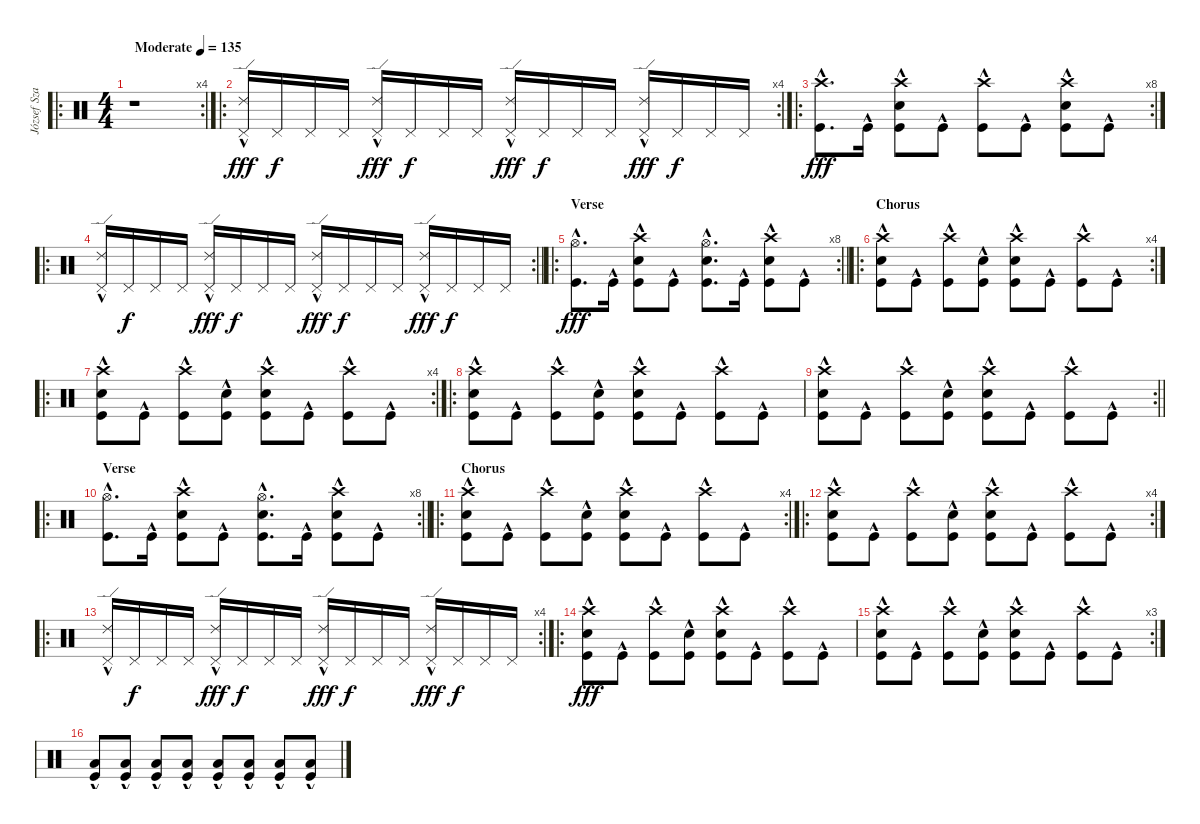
\track ("József Szakács" "József Sza") {instrument percussion}
\staff {score}
\articulation defaults
\ro
\rc 4
\ts (4 4)
\tempo (135 "Moderate")
\clef neutral
\ks c
r.1{dy fff} |
\ro
\rc 4
("Ride (edge) 2"{hac} "Pedal Hi-Hat (hit)").16 "Pedal Hi-Hat (hit)".16{dy f} "Pedal Hi-Hat (hit)".16 "Pedal Hi-Hat (hit)".16 ("Ride (edge) 2"{hac} "Pedal Hi-Hat (hit)").16{dy fff} "Pedal Hi-Hat (hit)".16{dy f} "Pedal Hi-Hat (hit)".16 "Pedal Hi-Hat (hit)".16 ("Ride (edge) 2"{hac} "Pedal Hi-Hat (hit)").16{dy fff} "Pedal Hi-Hat (hit)".16{dy f} "Pedal Hi-Hat (hit)".16 "Pedal Hi-Hat (hit)".16 ("Ride (edge) 2"{hac} "Pedal Hi-Hat (hit)").16{dy fff} "Pedal Hi-Hat (hit)".16{dy f} "Pedal Hi-Hat (hit)".16 "Pedal Hi-Hat (hit)".16 |
\ro
\rc 8
("Crash high (hit)" "Kick (hit)"{hac}).8{d dy fff} "Kick (hit)"{hac}.16 ("Crash high (hit)" "Electric Snare (hit)" "Kick (hit)"{hac}).8 "Kick (hit)"{hac}.8 ("Crash high (hit)" "Kick (hit)"{hac}).8 "Kick (hit)"{hac}.8 ("Crash high (hit)" "Electric Snare (hit)" "Kick (hit)"{hac}).8 "Kick (hit)"{hac}.8 |
\ro
\rc 2
\barLineRight lightlight
("Ride (edge) 2"{hac} "Pedal Hi-Hat (hit)").16 "Pedal Hi-Hat (hit)".16{dy f} "Pedal Hi-Hat (hit)".16 "Pedal Hi-Hat (hit)".16 ("Ride (edge) 2"{hac} "Pedal Hi-Hat (hit)").16{dy fff} "Pedal Hi-Hat (hit)".16{dy f} "Pedal Hi-Hat (hit)".16 "Pedal Hi-Hat (hit)".16 ("Ride (edge) 2"{hac} "Pedal Hi-Hat (hit)").16{dy fff} "Pedal Hi-Hat (hit)".16{dy f} "Pedal Hi-Hat (hit)".16 "Pedal Hi-Hat (hit)".16 ("Ride (edge) 2"{hac} "Pedal Hi-Hat (hit)").16{dy fff} "Pedal Hi-Hat (hit)".16{dy f} "Pedal Hi-Hat (hit)".16 "Pedal Hi-Hat (hit)".16 |
\ro
\rc 8
\section ("" "Verse")
\barLineRight lightlight
("Hi-Hat (open)" "Kick (hit)"{hac}).8{d dy fff} "Kick (hit)"{hac}.16 ("Crash high (hit)" "Electric Snare (hit)" "Kick (hit)"{hac}).8 "Kick (hit)"{hac}.8 ("Hi-Hat (open)" "Electric Snare (hit)" "Kick (hit)"{hac}).8{d} "Kick (hit)"{hac}.16 ("Crash high (hit)" "Electric Snare (hit)" "Kick (hit)"{hac}).8 "Kick (hit)"{hac}.8 |
\ro
\rc 4
\section ("" "Chorus")
("Crash high (hit)" "Electric Snare (hit)" "Kick (hit)"{hac}).8 "Kick (hit)"{hac}.8 ("Crash high (hit)" "Kick (hit)"{hac}).8 ("Electric Snare (hit)" "Kick (hit)"{hac}).8 ("Crash high (hit)" "Electric Snare (hit)" "Kick (hit)"{hac}).8 "Kick (hit)"{hac}.8 ("Crash high (hit)" "Kick (hit)"{hac}).8 "Kick (hit)"{hac}.8 |
\ro
\rc 4
("Crash high (hit)" "Electric Snare (hit)" "Kick (hit)"{hac}).8 "Kick (hit)"{hac}.8 ("Crash high (hit)" "Kick (hit)"{hac}).8 ("Electric Snare (hit)" "Kick (hit)"{hac}).8 ("Crash high (hit)" "Electric Snare (hit)" "Kick (hit)"{hac}).8 "Kick (hit)"{hac}.8 ("Crash high (hit)" "Kick (hit)"{hac}).8 "Kick (hit)"{hac}.8 |
\ro
("Crash high (hit)" "Electric Snare (hit)" "Kick (hit)"{hac}).8 "Kick (hit)"{hac}.8 ("Crash high (hit)" "Kick (hit)"{hac}).8 ("Electric Snare (hit)" "Kick (hit)"{hac}).8 ("Crash high (hit)" "Electric Snare (hit)" "Kick (hit)"{hac}).8 "Kick (hit)"{hac}.8 ("Crash high (hit)" "Kick (hit)"{hac}).8 "Kick (hit)"{hac}.8 |
\rc 2
\barLineRight lightlight
("Crash high (hit)" "Electric Snare (hit)" "Kick (hit)"{hac}).8 "Kick (hit)"{hac}.8 ("Crash high (hit)" "Kick (hit)"{hac}).8 ("Electric Snare (hit)" "Kick (hit)"{hac}).8 ("Crash high (hit)" "Electric Snare (hit)" "Kick (hit)"{hac}).8 "Kick (hit)"{hac}.8 ("Crash high (hit)" "Kick (hit)"{hac}).8 "Kick (hit)"{hac}.8 |
\ro
\rc 8
\section ("" "Verse")
\barLineRight lightlight
("Hi-Hat (open)" "Kick (hit)"{hac}).8{d} "Kick (hit)"{hac}.16 ("Crash high (hit)" "Electric Snare (hit)" "Kick (hit)"{hac}).8 "Kick (hit)"{hac}.8 ("Hi-Hat (open)" "Electric Snare (hit)" "Kick (hit)"{hac}).8{d} "Kick (hit)"{hac}.16 ("Crash high (hit)" "Electric Snare (hit)" "Kick (hit)"{hac}).8 "Kick (hit)"{hac}.8 |
\ro
\rc 4
\section ("" "Chorus")
("Crash high (hit)" "Electric Snare (hit)" "Kick (hit)"{hac}).8 "Kick (hit)"{hac}.8 ("Crash high (hit)" "Kick (hit)"{hac}).8 ("Electric Snare (hit)" "Kick (hit)"{hac}).8 ("Crash high (hit)" "Electric Snare (hit)" "Kick (hit)"{hac}).8 "Kick (hit)"{hac}.8 ("Crash high (hit)" "Kick (hit)"{hac}).8 "Kick (hit)"{hac}.8 |
\ro
\rc 4
("Crash high (hit)" "Electric Snare (hit)" "Kick (hit)"{hac}).8 "Kick (hit)"{hac}.8 ("Crash high (hit)" "Kick (hit)"{hac}).8 ("Electric Snare (hit)" "Kick (hit)"{hac}).8 ("Crash high (hit)" "Electric Snare (hit)" "Kick (hit)"{hac}).8 "Kick (hit)"{hac}.8 ("Crash high (hit)" "Kick (hit)"{hac}).8 "Kick (hit)"{hac}.8 |
\ro
\rc 4
("Ride (edge) 2"{hac} "Pedal Hi-Hat (hit)").16 "Pedal Hi-Hat (hit)".16{dy f} "Pedal Hi-Hat (hit)".16 "Pedal Hi-Hat (hit)".16 ("Ride (edge) 2"{hac} "Pedal Hi-Hat (hit)").16{dy fff} "Pedal Hi-Hat (hit)".16{dy f} "Pedal Hi-Hat (hit)".16 "Pedal Hi-Hat (hit)".16 ("Ride (edge) 2"{hac} "Pedal Hi-Hat (hit)").16{dy fff} "Pedal Hi-Hat (hit)".16{dy f} "Pedal Hi-Hat (hit)".16 "Pedal Hi-Hat (hit)".16 ("Ride (edge) 2"{hac} "Pedal Hi-Hat (hit)").16{dy fff} "Pedal Hi-Hat (hit)".16{dy f} "Pedal Hi-Hat (hit)".16 "Pedal Hi-Hat (hit)".16 |
\ro
("Crash high (hit)" "Electric Snare (hit)" "Kick (hit)"{hac}).8{dy fff} "Kick (hit)"{hac}.8 ("Crash high (hit)" "Kick (hit)"{hac}).8 ("Electric Snare (hit)" "Kick (hit)"{hac}).8 ("Crash high (hit)" "Electric Snare (hit)" "Kick (hit)"{hac}).8 "Kick (hit)"{hac}.8 ("Crash high (hit)" "Kick (hit)"{hac}).8 "Kick (hit)"{hac}.8 |
\rc 3
("Crash high (hit)" "Electric Snare (hit)" "Kick (hit)"{hac}).8 "Kick (hit)"{hac}.8 ("Crash high (hit)" "Kick (hit)"{hac}).8 ("Electric Snare (hit)" "Kick (hit)"{hac}).8 ("Crash high (hit)" "Electric Snare (hit)" "Kick (hit)"{hac}).8 "Kick (hit)"{hac}.8 ("Crash high (hit)" "Kick (hit)"{hac}).8 "Kick (hit)"{hac}.8 |
("Low Tom (hit)"{hac} "Kick (hit)"{hac}).8 ("Low Tom (hit)"{hac} "Kick (hit)"{hac}).8 ("Low Tom (hit)"{hac} "Kick (hit)"{hac}).8 ("Low Tom (hit)"{hac} "Kick (hit)"{hac}).8 ("Low Tom (hit)"{hac} "Kick (hit)"{hac}).8 ("Low Tom (hit)"{hac} "Kick (hit)"{hac}).8 ("Low Tom (hit)"{hac} "Kick (hit)"{hac}).8 ("Low Tom (hit)"{hac} "Kick (hit)"{hac}).8
